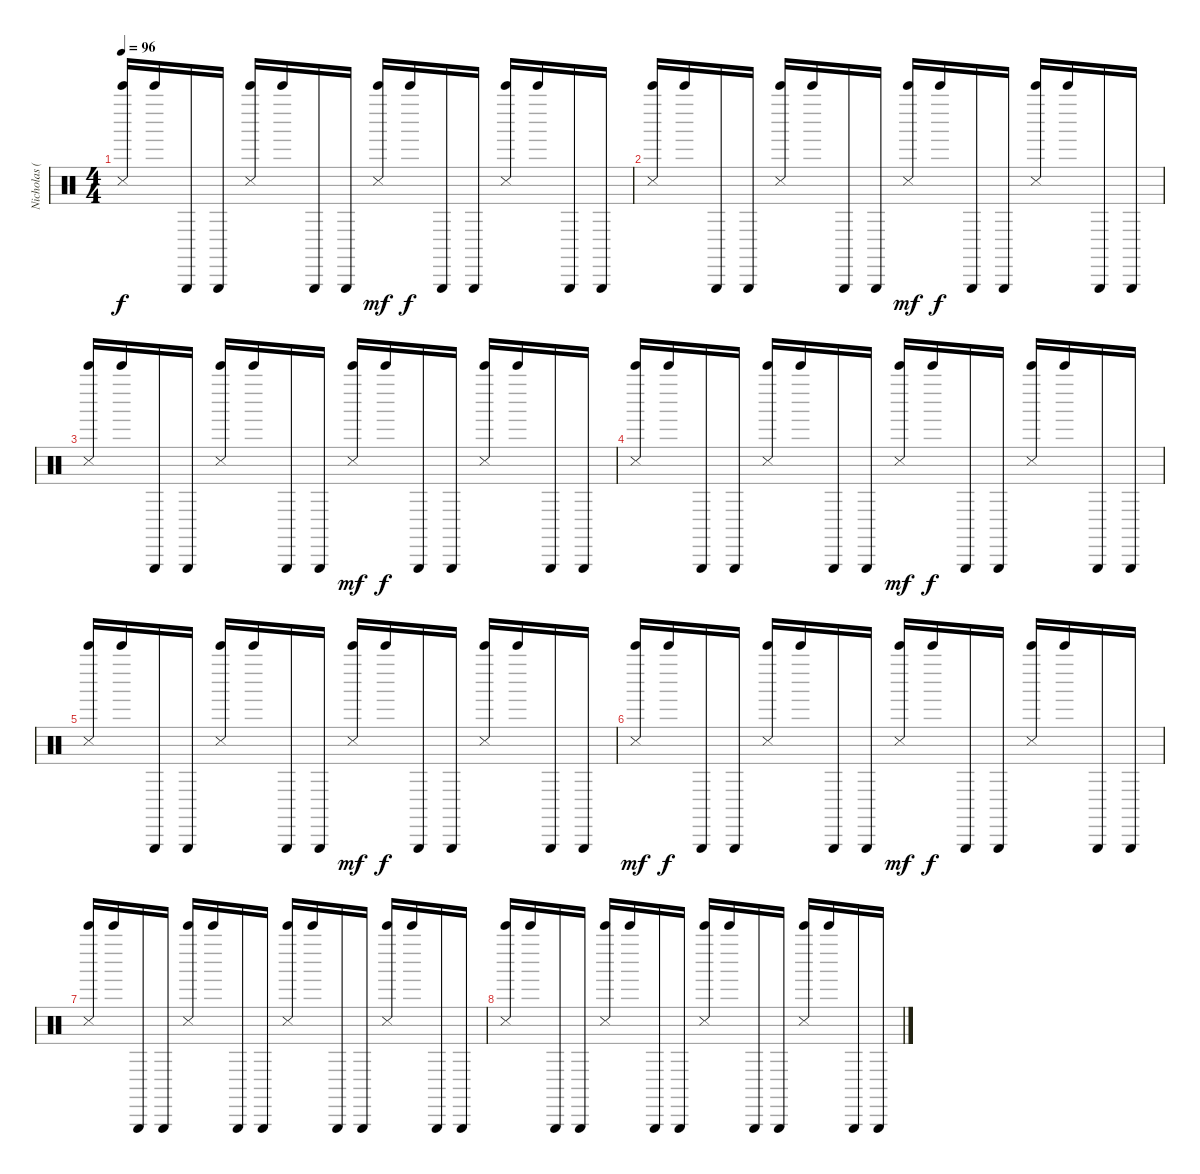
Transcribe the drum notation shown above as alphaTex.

\track ("Nicholas (Drums)" "Nicholas (") {instrument percussion}
\staff {score}
\articulation defaults
\ts (4 4)
\tempo 96
\clef neutral
\ks c
("Bell Tree (hit)" "Metronome (hit)").16{dy f} "Bell Tree (hit)".16 "Triangle (hit)".16 "Triangle (hit)".16 ("Bell Tree (hit)" "Snare (side stick) 3").16 "Bell Tree (hit)".16 "Triangle (hit)".16 "Triangle (hit)".16 ("Bell Tree (hit)" "Metronome (hit)").16{dy mf} "Bell Tree (hit)".16{dy f} "Triangle (hit)".16 "Triangle (hit)".16 ("Bell Tree (hit)" "Snare (side stick) 3").16 "Bell Tree (hit)".16 "Triangle (hit)".16 "Triangle (hit)".16 |
("Bell Tree (hit)" "Metronome (hit)").16 "Bell Tree (hit)".16 "Triangle (hit)".16 "Triangle (hit)".16 ("Bell Tree (hit)" "Snare (side stick) 3").16 "Bell Tree (hit)".16 "Triangle (hit)".16 "Triangle (hit)".16 ("Bell Tree (hit)" "Metronome (hit)").16{dy mf} "Bell Tree (hit)".16{dy f} "Triangle (hit)".16 "Triangle (hit)".16 ("Bell Tree (hit)" "Snare (side stick) 3").16 "Bell Tree (hit)".16 "Triangle (hit)".16 "Triangle (hit)".16 |
("Bell Tree (hit)" "Metronome (hit)").16 "Bell Tree (hit)".16 "Triangle (hit)".16 "Triangle (hit)".16 ("Bell Tree (hit)" "Snare (side stick) 3").16 "Bell Tree (hit)".16 "Triangle (hit)".16 "Triangle (hit)".16 ("Bell Tree (hit)" "Metronome (hit)").16{dy mf} "Bell Tree (hit)".16{dy f} "Triangle (hit)".16 "Triangle (hit)".16 ("Bell Tree (hit)" "Snare (side stick) 3").16 "Bell Tree (hit)".16 "Triangle (hit)".16 "Triangle (hit)".16 |
("Bell Tree (hit)" "Metronome (hit)").16 "Bell Tree (hit)".16 "Triangle (hit)".16 "Triangle (hit)".16 ("Bell Tree (hit)" "Snare (side stick) 3").16 "Bell Tree (hit)".16 "Triangle (hit)".16 "Triangle (hit)".16 ("Bell Tree (hit)" "Metronome (hit)").16{dy mf} "Bell Tree (hit)".16{dy f} "Triangle (hit)".16 "Triangle (hit)".16 ("Bell Tree (hit)" "Snare (side stick) 3").16 "Bell Tree (hit)".16 "Triangle (hit)".16 "Triangle (hit)".16 |
("Bell Tree (hit)" "Metronome (hit)").16 "Bell Tree (hit)".16 "Triangle (hit)".16 "Triangle (hit)".16 ("Bell Tree (hit)" "Snare (side stick) 3").16 "Bell Tree (hit)".16 "Triangle (hit)".16 "Triangle (hit)".16 ("Bell Tree (hit)" "Metronome (hit)").16{dy mf} "Bell Tree (hit)".16{dy f} "Triangle (hit)".16 "Triangle (hit)".16 ("Bell Tree (hit)" "Snare (side stick) 3").16 "Bell Tree (hit)".16 "Triangle (hit)".16 "Triangle (hit)".16 |
("Bell Tree (hit)" "Snare (side stick) 3").16{dy mf} "Bell Tree (hit)".16{dy f} "Triangle (hit)".16 "Triangle (hit)".16 ("Bell Tree (hit)" "Metronome (hit)").16 "Bell Tree (hit)".16 "Triangle (hit)".16 "Triangle (hit)".16 ("Bell Tree (hit)" "Snare (side stick) 3").16{dy mf} "Bell Tree (hit)".16{dy f} "Triangle (hit)".16 "Triangle (hit)".16 ("Bell Tree (hit)" "Metronome (hit)").16 "Bell Tree (hit)".16 "Triangle (hit)".16 "Triangle (hit)".16 |
("Bell Tree (hit)" "Snare (side stick) 3").16 "Bell Tree (hit)".16 "Triangle (hit)".16 "Triangle (hit)".16 ("Bell Tree (hit)" "Metronome (hit)").16 "Bell Tree (hit)".16 "Triangle (hit)".16 "Triangle (hit)".16 ("Bell Tree (hit)" "Snare (side stick) 3").16 "Bell Tree (hit)".16 "Triangle (hit)".16 "Triangle (hit)".16 ("Bell Tree (hit)" "Metronome (hit)").16 "Bell Tree (hit)".16 "Triangle (hit)".16 "Triangle (hit)".16 |
("Bell Tree (hit)" "Snare (side stick) 3").16 "Bell Tree (hit)".16 "Triangle (hit)".16 "Triangle (hit)".16 ("Bell Tree (hit)" "Metronome (hit)").16 "Bell Tree (hit)".16 "Triangle (hit)".16 "Triangle (hit)".16 ("Bell Tree (hit)" "Snare (side stick) 3").16 "Bell Tree (hit)".16 "Triangle (hit)".16 "Triangle (hit)".16 ("Bell Tree (hit)" "Metronome (hit)").16 "Bell Tree (hit)".16 "Triangle (hit)".16 "Triangle (hit)".16
